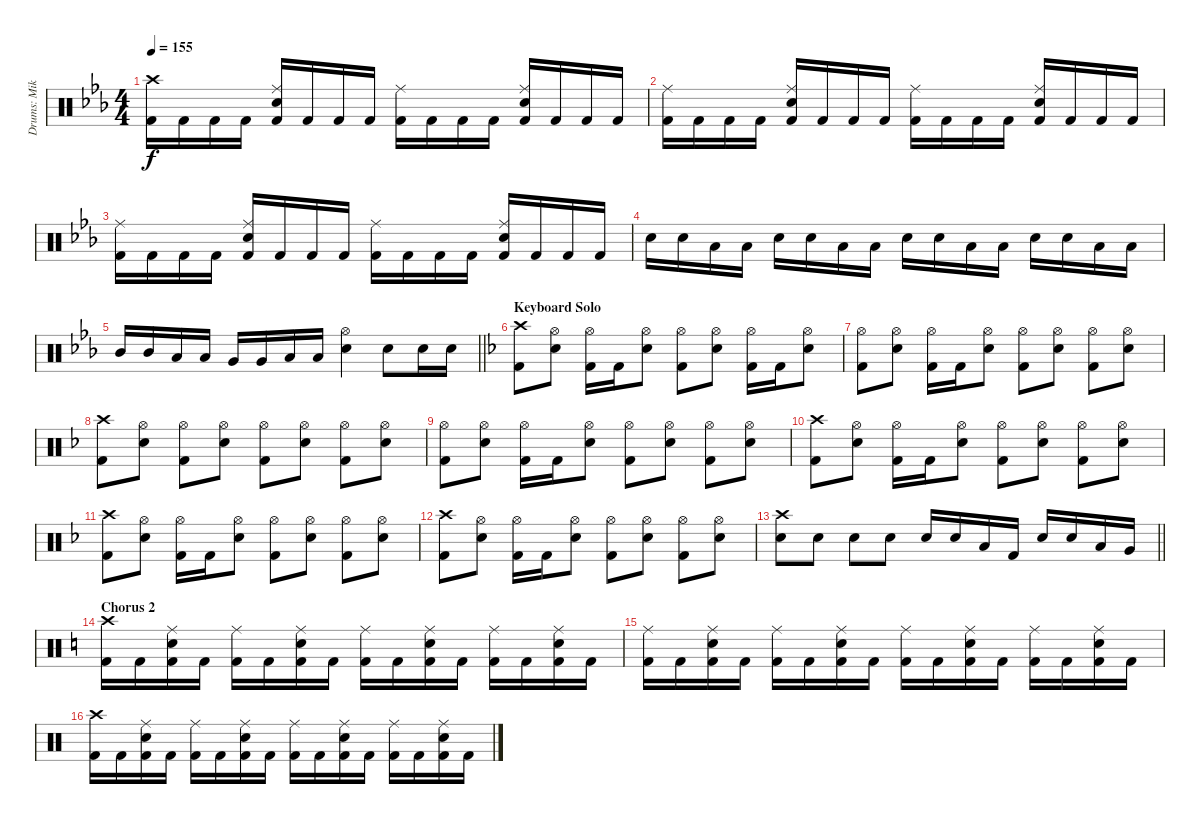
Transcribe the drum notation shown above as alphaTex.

\track ("Drums: Mikko Korsbäck" "Drums: Mik") {instrument percussion}
\staff {score}
\articulation defaults
\ts (4 4)
\tempo 155
\clef neutral
\ks cminor
("Crash high (hit)" "Kick (hit) 2").16{dy f} "Kick (hit) 2".16 "Kick (hit) 2".16 "Kick (hit) 2".16 ("Ride (middle)" "Electric Snare (hit)" "Kick (hit) 2").16 "Kick (hit) 2".16 "Kick (hit) 2".16 "Kick (hit) 2".16 ("Ride (middle)" "Kick (hit) 2").16 "Kick (hit) 2".16 "Kick (hit) 2".16 "Kick (hit) 2".16 ("Ride (middle)" "Electric Snare (hit)" "Kick (hit) 2").16 "Kick (hit) 2".16 "Kick (hit) 2".16 "Kick (hit) 2".16 |
("Ride (middle)" "Kick (hit) 2").16 "Kick (hit) 2".16 "Kick (hit) 2".16 "Kick (hit) 2".16 ("Ride (middle)" "Electric Snare (hit)" "Kick (hit) 2").16 "Kick (hit) 2".16 "Kick (hit) 2".16 "Kick (hit) 2".16 ("Ride (middle)" "Kick (hit) 2").16 "Kick (hit) 2".16 "Kick (hit) 2".16 "Kick (hit) 2".16 ("Ride (middle)" "Electric Snare (hit)" "Kick (hit) 2").16 "Kick (hit) 2".16 "Kick (hit) 2".16 "Kick (hit) 2".16 |
("Ride (middle)" "Kick (hit) 2").16 "Kick (hit) 2".16 "Kick (hit) 2".16 "Kick (hit) 2".16 ("Ride (middle)" "Electric Snare (hit)" "Kick (hit) 2").16 "Kick (hit) 2".16 "Kick (hit) 2".16 "Kick (hit) 2".16 ("Ride (middle)" "Kick (hit) 2").16 "Kick (hit) 2".16 "Kick (hit) 2".16 "Kick (hit) 2".16 ("Ride (middle)" "Electric Snare (hit)" "Kick (hit) 2").16 "Kick (hit) 2".16 "Kick (hit) 2".16 "Kick (hit) 2".16 |
"Electric Snare (hit)".16 "Electric Snare (hit)".16 "Low Tom (hit)".16 "Low Tom (hit)".16 "Electric Snare (hit)".16 "Electric Snare (hit)".16 "Low Tom (hit)".16 "Low Tom (hit)".16 "Electric Snare (hit)".16 "Electric Snare (hit)".16 "Low Tom (hit)".16 "Low Tom (hit)".16 "Electric Snare (hit)".16 "Electric Snare (hit)".16 "Low Tom (hit)".16 "Low Tom (hit)".16 |
\barLineRight lightlight "Mid Tom (hit)".16 "Mid Tom (hit)".16 "Low Tom (hit)".16 "Low Tom (hit)".16 "Very Low Tom (hit)".16 "Very Low Tom (hit)".16 "Low Floor Tom (hit)".16 "Low Floor Tom (hit)".16
("Hi-Hat (open)" "Electric Snare (hit)").4 "Electric Snare (hit)".8 "Electric Snare (hit)".16 "Electric Snare (hit)".16 |
\section ("" "Keyboard Solo")
\ks f
("Crash high (hit)" "Kick (hit) 2").8 ("Hi-Hat (open)" "Electric Snare (hit)").8 ("Hi-Hat (open)" "Kick (hit) 2").16 "Kick (hit) 2".16 ("Hi-Hat (open)" "Electric Snare (hit)").8 ("Hi-Hat (open)" "Kick (hit) 2").8 ("Hi-Hat (open)" "Electric Snare (hit)").8 ("Hi-Hat (open)" "Kick (hit) 2").16 "Kick (hit) 2".16 ("Hi-Hat (open)" "Electric Snare (hit)").8 |
("Hi-Hat (open)" "Kick (hit) 2").8 ("Hi-Hat (open)" "Electric Snare (hit)").8 ("Hi-Hat (open)" "Kick (hit) 2").16 "Kick (hit) 2".16 ("Hi-Hat (open)" "Electric Snare (hit)").8 ("Hi-Hat (open)" "Kick (hit) 2").8 ("Hi-Hat (open)" "Electric Snare (hit)").8 ("Hi-Hat (open)" "Kick (hit) 2").8 ("Hi-Hat (open)" "Electric Snare (hit)").8 |
("Crash high (hit)" "Kick (hit) 2").8 ("Hi-Hat (open)" "Electric Snare (hit)").8 ("Hi-Hat (open)" "Kick (hit) 2").8 ("Hi-Hat (open)" "Electric Snare (hit)").8 ("Hi-Hat (open)" "Kick (hit) 2").8 ("Hi-Hat (open)" "Electric Snare (hit)").8 ("Hi-Hat (open)" "Kick (hit) 2").8 ("Hi-Hat (open)" "Electric Snare (hit)").8 |
("Hi-Hat (open)" "Kick (hit) 2").8 ("Hi-Hat (open)" "Electric Snare (hit)").8 ("Hi-Hat (open)" "Kick (hit) 2").16 "Kick (hit) 2".16 ("Hi-Hat (open)" "Electric Snare (hit)").8 ("Hi-Hat (open)" "Kick (hit) 2").8 ("Hi-Hat (open)" "Electric Snare (hit)").8 ("Hi-Hat (open)" "Kick (hit) 2").8 ("Hi-Hat (open)" "Electric Snare (hit)").8 |
("Crash high (hit)" "Kick (hit) 2").8 ("Hi-Hat (open)" "Electric Snare (hit)").8 ("Hi-Hat (open)" "Kick (hit) 2").16 "Kick (hit) 2".16 ("Hi-Hat (open)" "Electric Snare (hit)").8 ("Hi-Hat (open)" "Kick (hit) 2").8 ("Hi-Hat (open)" "Electric Snare (hit)").8 ("Hi-Hat (open)" "Kick (hit) 2").8 ("Hi-Hat (open)" "Electric Snare (hit)").8 |
("Crash high (hit)" "Kick (hit) 2").8 ("Hi-Hat (open)" "Electric Snare (hit)").8 ("Hi-Hat (open)" "Kick (hit) 2").16 "Kick (hit) 2".16 ("Hi-Hat (open)" "Electric Snare (hit)").8 ("Hi-Hat (open)" "Kick (hit) 2").8 ("Hi-Hat (open)" "Electric Snare (hit)").8 ("Hi-Hat (open)" "Kick (hit) 2").8 ("Hi-Hat (open)" "Electric Snare (hit)").8 |
("Crash high (hit)" "Kick (hit) 2").8 ("Hi-Hat (open)" "Electric Snare (hit)").8 ("Hi-Hat (open)" "Kick (hit) 2").16 "Kick (hit) 2".16 ("Hi-Hat (open)" "Electric Snare (hit)").8 ("Hi-Hat (open)" "Kick (hit) 2").8 ("Hi-Hat (open)" "Electric Snare (hit)").8 ("Hi-Hat (open)" "Kick (hit) 2").8 ("Hi-Hat (open)" "Electric Snare (hit)").8 |
\barLineRight lightlight
("Crash high (hit)" "Electric Snare (hit)").8 "Electric Snare (hit)".8 "Electric Snare (hit)".8 "Electric Snare (hit)".8 "Electric Snare (hit)".16 "Electric Snare (hit)".16 "Low Tom (hit)".16 "Kick (hit) 2".16 "Electric Snare (hit)".16 "Electric Snare (hit)".16 "Low Tom (hit)".16 "Very Low Tom (hit)".16 |
\section ("" "Chorus 2")
\ks c
("Crash high (hit)" "Kick (hit) 2").16 "Kick (hit) 2".16 ("Ride (middle)" "Electric Snare (hit)" "Kick (hit) 2").16 "Kick (hit) 2".16 ("Ride (middle)" "Kick (hit) 2").16 "Kick (hit) 2".16 ("Ride (middle)" "Electric Snare (hit)" "Kick (hit) 2").16 "Kick (hit) 2".16 ("Ride (middle)" "Kick (hit) 2").16 "Kick (hit) 2".16 ("Ride (middle)" "Electric Snare (hit)" "Kick (hit) 2").16 "Kick (hit) 2".16 ("Ride (middle)" "Kick (hit) 2").16 "Kick (hit) 2".16 ("Ride (middle)" "Electric Snare (hit)" "Kick (hit) 2").16 "Kick (hit) 2".16 |
("Ride (middle)" "Kick (hit) 2").16 "Kick (hit) 2".16 ("Ride (middle)" "Electric Snare (hit)" "Kick (hit) 2").16 "Kick (hit) 2".16 ("Ride (middle)" "Kick (hit) 2").16 "Kick (hit) 2".16 ("Ride (middle)" "Electric Snare (hit)" "Kick (hit) 2").16 "Kick (hit) 2".16 ("Ride (middle)" "Kick (hit) 2").16 "Kick (hit) 2".16 ("Ride (middle)" "Electric Snare (hit)" "Kick (hit) 2").16 "Kick (hit) 2".16 ("Ride (middle)" "Kick (hit) 2").16 "Kick (hit) 2".16 ("Ride (middle)" "Electric Snare (hit)" "Kick (hit) 2").16 "Kick (hit) 2".16 |
("Crash high (hit)" "Kick (hit) 2").16 "Kick (hit) 2".16 ("Ride (middle)" "Electric Snare (hit)" "Kick (hit) 2").16 "Kick (hit) 2".16 ("Ride (middle)" "Kick (hit) 2").16 "Kick (hit) 2".16 ("Ride (middle)" "Electric Snare (hit)" "Kick (hit) 2").16 "Kick (hit) 2".16 ("Ride (middle)" "Kick (hit) 2").16 "Kick (hit) 2".16 ("Ride (middle)" "Electric Snare (hit)" "Kick (hit) 2").16 "Kick (hit) 2".16 ("Ride (middle)" "Kick (hit) 2").16 "Kick (hit) 2".16 ("Ride (middle)" "Electric Snare (hit)" "Kick (hit) 2").16 "Kick (hit) 2".16
